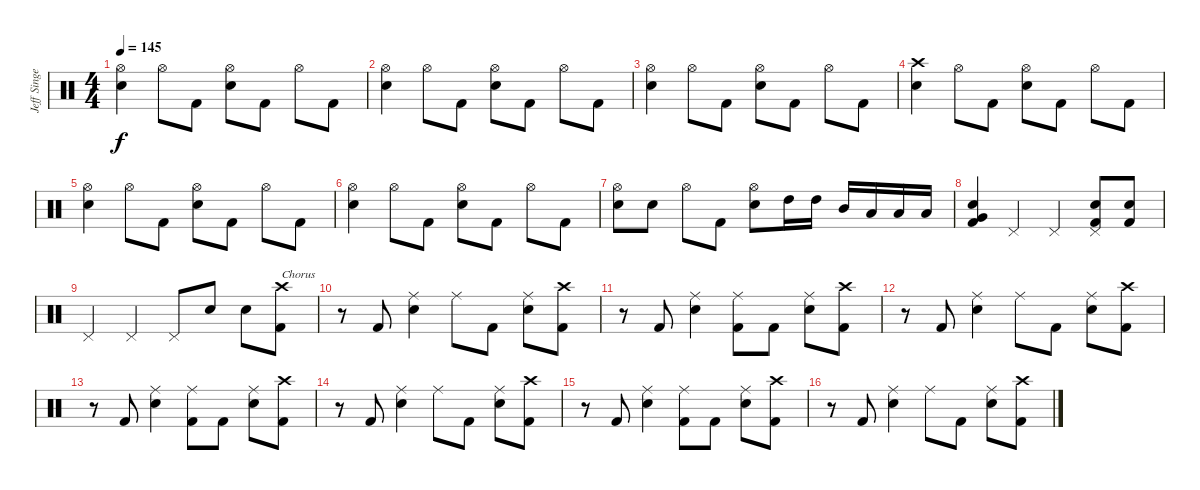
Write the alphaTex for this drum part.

\track ("Jeff Singer" "Jeff Singe") {instrument percussion}
\staff {score}
\articulation defaults
\ts (4 4)
\tempo 145
\clef neutral
\ks c
("Hi-Hat (open)" "Electric Snare (hit)").4{dy f} "Hi-Hat (open)".8 "Kick (hit) 2".8 ("Hi-Hat (open)" "Electric Snare (hit)").8 "Kick (hit) 2".8 "Hi-Hat (open)".8 "Kick (hit) 2".8 |
("Hi-Hat (open)" "Electric Snare (hit)").4 "Hi-Hat (open)".8 "Kick (hit) 2".8 ("Hi-Hat (open)" "Electric Snare (hit)").8 "Kick (hit) 2".8 "Hi-Hat (open)".8 "Kick (hit) 2".8 |
("Hi-Hat (open)" "Electric Snare (hit)").4 "Hi-Hat (open)".8 "Kick (hit) 2".8 ("Hi-Hat (open)" "Electric Snare (hit)").8 "Kick (hit) 2".8 "Hi-Hat (open)".8 "Kick (hit) 2".8 |
("Crash high (hit)" "Electric Snare (hit)").4 "Hi-Hat (open)".8 "Kick (hit) 2".8 ("Hi-Hat (open)" "Electric Snare (hit)").8 "Kick (hit) 2".8 "Hi-Hat (open)".8 "Kick (hit) 2".8 |
("Hi-Hat (open)" "Electric Snare (hit)").4 "Hi-Hat (open)".8 "Kick (hit) 2".8 ("Hi-Hat (open)" "Electric Snare (hit)").8 "Kick (hit) 2".8 "Hi-Hat (open)".8 "Kick (hit) 2".8 |
("Hi-Hat (open)" "Electric Snare (hit)").4 "Hi-Hat (open)".8 "Kick (hit) 2".8 ("Hi-Hat (open)" "Electric Snare (hit)").8 "Kick (hit) 2".8 "Hi-Hat (open)".8 "Kick (hit) 2".8 |
("Hi-Hat (open)" "Electric Snare (hit)").8 "Electric Snare (hit)".8 "Hi-Hat (open)".8 "Kick (hit) 2".8 ("Hi-Hat (open)" "Electric Snare (hit)").8 "High Tom (hit)".16 "High Tom (hit)".16 "Mid Tom (hit)".16 "Low Tom (hit)".16 "Low Tom (hit)".16 "Low Tom (hit)".16 |
("Very Low Tom (hit)" "Electric Snare (hit)" "Kick (hit) 2").4 "Pedal Hi-Hat (hit)".4 "Pedal Hi-Hat (hit)".4 ("Pedal Hi-Hat (hit)" "Electric Snare (hit)" "Kick (hit) 2").8 ("Electric Snare (hit)" "Kick (hit) 2").8 |
"Pedal Hi-Hat (hit)".4 "Pedal Hi-Hat (hit)".4 "Pedal Hi-Hat (hit)".8 "Electric Snare (hit)".8 "Electric Snare (hit)".8 ("Crash high (hit)" "Kick (hit) 2").8{txt "Chorus"} |
r.8 "Kick (hit) 2".8 ("Ride (middle)" "Electric Snare (hit)").4 "Ride (middle)".8 "Kick (hit) 2".8 ("Ride (middle)" "Electric Snare (hit)").8 ("Crash high (hit)" "Kick (hit) 2").8 |
r.8 "Kick (hit) 2".8 ("Ride (middle)" "Electric Snare (hit)").4 ("Ride (middle)" "Kick (hit) 2").8 "Kick (hit) 2".8 ("Ride (middle)" "Electric Snare (hit)").8 ("Crash high (hit)" "Kick (hit) 2").8 |
r.8 "Kick (hit) 2".8 ("Ride (middle)" "Electric Snare (hit)").4 "Ride (middle)".8 "Kick (hit) 2".8 ("Ride (middle)" "Electric Snare (hit)").8 ("Crash high (hit)" "Kick (hit) 2").8 |
r.8 "Kick (hit) 2".8 ("Ride (middle)" "Electric Snare (hit)").4 ("Ride (middle)" "Kick (hit) 2").8 "Kick (hit) 2".8 ("Ride (middle)" "Electric Snare (hit)").8 ("Crash high (hit)" "Kick (hit) 2").8 |
r.8 "Kick (hit) 2".8 ("Ride (middle)" "Electric Snare (hit)").4 "Ride (middle)".8 "Kick (hit) 2".8 ("Ride (middle)" "Electric Snare (hit)").8 ("Crash high (hit)" "Kick (hit) 2").8 |
r.8 "Kick (hit) 2".8 ("Ride (middle)" "Electric Snare (hit)").4 ("Ride (middle)" "Kick (hit) 2").8 "Kick (hit) 2".8 ("Ride (middle)" "Electric Snare (hit)").8 ("Crash high (hit)" "Kick (hit) 2").8 |
r.8 "Kick (hit) 2".8 ("Ride (middle)" "Electric Snare (hit)").4 "Ride (middle)".8 "Kick (hit) 2".8 ("Ride (middle)" "Electric Snare (hit)").8 ("Crash high (hit)" "Kick (hit) 2").8
